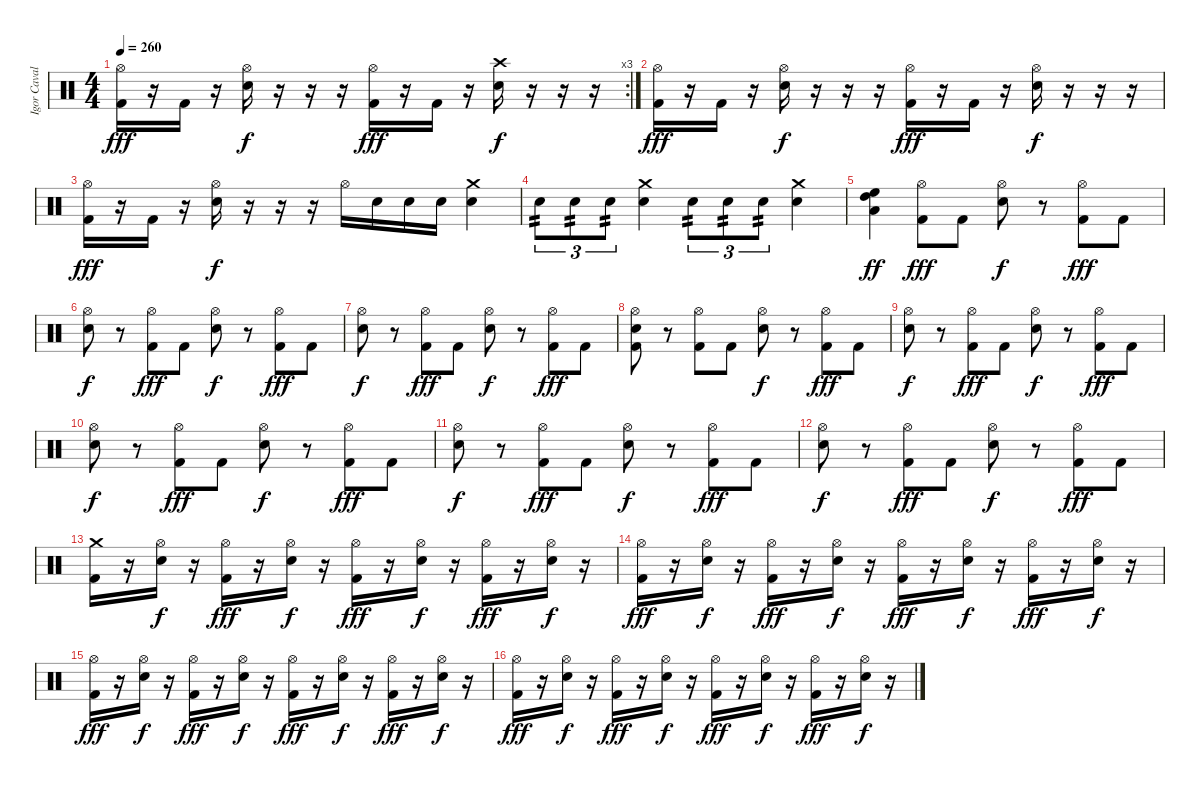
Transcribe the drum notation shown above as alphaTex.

\track ("Igor Cavalera" "Igor Caval") {instrument percussion}
\staff {score}
\articulation defaults
\rc 3
\ts (4 4)
\tempo 260
\clef neutral
\ks c
("Hi-Hat (open)" "Kick (hit) 2").16{dy fff} r.16 "Kick (hit) 2".16 r.16 ("Electric Snare (hit)" "Hi-Hat (open)").16{dy f} r.16 r.16 r.16 ("Hi-Hat (open)" "Kick (hit) 2").16{dy fff} r.16 "Kick (hit) 2".16 r.16 ("Crash high (hit)" "Electric Snare (hit)").16{dy f} r.16 r.16 r.16 |
("Hi-Hat (open)" "Kick (hit) 2").16{dy fff} r.16 "Kick (hit) 2".16 r.16 ("Electric Snare (hit)" "Hi-Hat (open)").16{dy f} r.16 r.16 r.16 ("Hi-Hat (open)" "Kick (hit) 2").16{dy fff} r.16 "Kick (hit) 2".16 r.16 ("Electric Snare (hit)" "Hi-Hat (open)").16{dy f} r.16 r.16 r.16 |
("Hi-Hat (open)" "Kick (hit) 2").16{dy fff} r.16 "Kick (hit) 2".16 r.16 ("Electric Snare (hit)" "Hi-Hat (open)").16{dy f} r.16 r.16 r.16 "Hi-Hat (open)".16 "Electric Snare (hit)".16 "Electric Snare (hit)".16 "Electric Snare (hit)".16 ("Crash medium (hit)" "Electric Snare (hit)").4 |
"Electric Snare (hit)".8{tu (3 2) tp 2} "Electric Snare (hit)".8{tu (3 2) tp 2} "Electric Snare (hit)".8{tu (3 2) tp 2} ("Crash medium (hit)" "Electric Snare (hit)").4 "Electric Snare (hit)".8{tu (3 2) tp 2} "Electric Snare (hit)".8{tu (3 2) tp 2} "Electric Snare (hit)".8{tu (3 2) tp 2} ("Crash medium (hit)" "Electric Snare (hit)").4 |
("High Floor Tom (hit)" "High Tom (hit)" "Low Tom (hit)").4{dy ff} ("Hi-Hat (open)" "Kick (hit) 2").8{dy fff} "Kick (hit) 2".8 ("Electric Snare (hit)" "Hi-Hat (open)").8{dy f} r.8 ("Hi-Hat (open)" "Kick (hit) 2").8{dy fff} "Kick (hit) 2".8 |
("Electric Snare (hit)" "Hi-Hat (open)").8{dy f} r.8 ("Hi-Hat (open)" "Kick (hit) 2").8{dy fff} "Kick (hit) 2".8 ("Electric Snare (hit)" "Hi-Hat (open)").8{dy f} r.8 ("Hi-Hat (open)" "Kick (hit) 2").8{dy fff} "Kick (hit) 2".8 |
("Electric Snare (hit)" "Hi-Hat (open)").8{dy f} r.8 ("Hi-Hat (open)" "Kick (hit) 2").8{dy fff} "Kick (hit) 2".8 ("Electric Snare (hit)" "Hi-Hat (open)").8{dy f} r.8 ("Hi-Hat (open)" "Kick (hit) 2").8{dy fff} "Kick (hit) 2".8 |
("Electric Snare (hit)" "Hi-Hat (open)" "Kick (hit) 2").8 r.8 ("Hi-Hat (open)" "Kick (hit) 2").8 "Kick (hit) 2".8 ("Electric Snare (hit)" "Hi-Hat (open)").8{dy f} r.8 ("Hi-Hat (open)" "Kick (hit) 2").8{dy fff} "Kick (hit) 2".8 |
("Electric Snare (hit)" "Hi-Hat (open)").8{dy f} r.8 ("Hi-Hat (open)" "Kick (hit) 2").8{dy fff} "Kick (hit) 2".8 ("Electric Snare (hit)" "Hi-Hat (open)").8{dy f} r.8 ("Hi-Hat (open)" "Kick (hit) 2").8{dy fff} "Kick (hit) 2".8 |
("Electric Snare (hit)" "Hi-Hat (open)").8{dy f} r.8 ("Hi-Hat (open)" "Kick (hit) 2").8{dy fff} "Kick (hit) 2".8 ("Electric Snare (hit)" "Hi-Hat (open)").8{dy f} r.8 ("Hi-Hat (open)" "Kick (hit) 2").8{dy fff} "Kick (hit) 2".8 |
("Electric Snare (hit)" "Hi-Hat (open)").8{dy f} r.8 ("Hi-Hat (open)" "Kick (hit) 2").8{dy fff} "Kick (hit) 2".8 ("Electric Snare (hit)" "Hi-Hat (open)").8{dy f} r.8 ("Hi-Hat (open)" "Kick (hit) 2").8{dy fff} "Kick (hit) 2".8 |
("Electric Snare (hit)" "Hi-Hat (open)").8{dy f} r.8 ("Hi-Hat (open)" "Kick (hit) 2").8{dy fff} "Kick (hit) 2".8 ("Electric Snare (hit)" "Hi-Hat (open)").8{dy f} r.8 ("Hi-Hat (open)" "Kick (hit) 2").8{dy fff} "Kick (hit) 2".8 |
("Crash medium (hit)" "Kick (hit) 2").16 r.16 ("Electric Snare (hit)" "Hi-Hat (open)").16{dy f} r.16 ("Hi-Hat (open)" "Kick (hit) 2").16{dy fff} r.16 ("Electric Snare (hit)" "Hi-Hat (open)").16{dy f} r.16 ("Hi-Hat (open)" "Kick (hit) 2").16{dy fff} r.16 ("Electric Snare (hit)" "Hi-Hat (open)").16{dy f} r.16 ("Hi-Hat (open)" "Kick (hit) 2").16{dy fff} r.16 ("Electric Snare (hit)" "Hi-Hat (open)").16{dy f} r.16 |
("Hi-Hat (open)" "Kick (hit) 2").16{dy fff} r.16 ("Electric Snare (hit)" "Hi-Hat (open)").16{dy f} r.16 ("Hi-Hat (open)" "Kick (hit) 2").16{dy fff} r.16 ("Electric Snare (hit)" "Hi-Hat (open)").16{dy f} r.16 ("Hi-Hat (open)" "Kick (hit) 2").16{dy fff} r.16 ("Electric Snare (hit)" "Hi-Hat (open)").16{dy f} r.16 ("Hi-Hat (open)" "Kick (hit) 2").16{dy fff} r.16 ("Electric Snare (hit)" "Hi-Hat (open)").16{dy f} r.16 |
("Hi-Hat (open)" "Kick (hit) 2").16{dy fff} r.16 ("Electric Snare (hit)" "Hi-Hat (open)").16{dy f} r.16 ("Hi-Hat (open)" "Kick (hit) 2").16{dy fff} r.16 ("Electric Snare (hit)" "Hi-Hat (open)").16{dy f} r.16 ("Hi-Hat (open)" "Kick (hit) 2").16{dy fff} r.16 ("Electric Snare (hit)" "Hi-Hat (open)").16{dy f} r.16 ("Hi-Hat (open)" "Kick (hit) 2").16{dy fff} r.16 ("Electric Snare (hit)" "Hi-Hat (open)").16{dy f} r.16 |
("Hi-Hat (open)" "Kick (hit) 2").16{dy fff} r.16 ("Electric Snare (hit)" "Hi-Hat (open)").16{dy f} r.16 ("Hi-Hat (open)" "Kick (hit) 2").16{dy fff} r.16 ("Electric Snare (hit)" "Hi-Hat (open)").16{dy f} r.16 ("Hi-Hat (open)" "Kick (hit) 2").16{dy fff} r.16 ("Electric Snare (hit)" "Hi-Hat (open)").16{dy f} r.16 ("Hi-Hat (open)" "Kick (hit) 2").16{dy fff} r.16 ("Electric Snare (hit)" "Hi-Hat (open)").16{dy f} r.16
